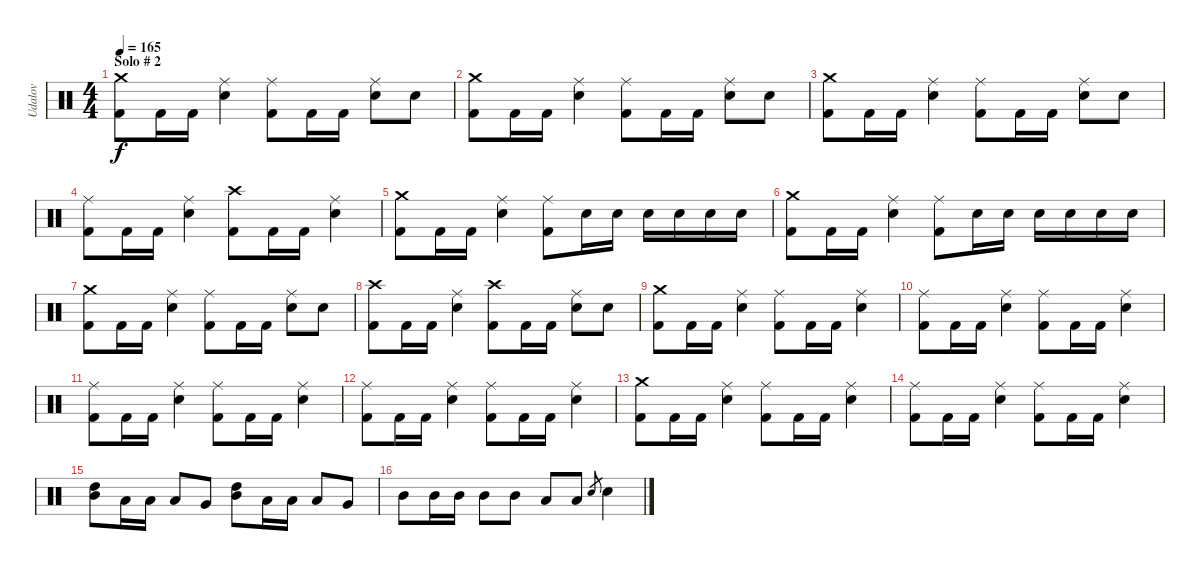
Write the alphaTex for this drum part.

\track ("Udalov" "Udalov") {instrument percussion}
\staff {score}
\articulation defaults
\ts (4 4)
\section ("" "Solo # 2")
\tempo 165
\clef neutral
\ks c
("Kick (hit) 2" "Crash medium (hit)").8{dy f} "Kick (hit) 2".16 "Kick (hit) 2".16 ("Snare (hit) 2" "Ride (middle)").4 ("Kick (hit) 2" "Ride (middle)").8 "Kick (hit) 2".16 "Kick (hit) 2".16 ("Snare (hit) 2" "Ride (middle)").8 "Snare (hit) 2".8 |
("Kick (hit) 2" "Crash medium (hit)").8 "Kick (hit) 2".16 "Kick (hit) 2".16 ("Snare (hit) 2" "Ride (middle)").4 ("Kick (hit) 2" "Ride (middle)").8 "Kick (hit) 2".16 "Kick (hit) 2".16 ("Snare (hit) 2" "Ride (middle)").8 "Snare (hit) 2".8 |
("Kick (hit) 2" "Crash medium (hit)").8 "Kick (hit) 2".16 "Kick (hit) 2".16 ("Snare (hit) 2" "Ride (middle)").4 ("Kick (hit) 2" "Ride (middle)").8 "Kick (hit) 2".16 "Kick (hit) 2".16 ("Snare (hit) 2" "Ride (middle)").8 "Snare (hit) 2".8 |
("Kick (hit) 2" "Ride (middle)").8 "Kick (hit) 2".16 "Kick (hit) 2".16 ("Snare (hit) 2" "Ride (middle)").4 ("Kick (hit) 2" "Crash high (hit)").8 "Kick (hit) 2".16 "Kick (hit) 2".16 ("Snare (hit) 2" "Ride (middle)").4 |
("Kick (hit) 2" "Crash medium (hit)").8 "Kick (hit) 2".16 "Kick (hit) 2".16 ("Snare (hit) 2" "Ride (middle)").4 ("Kick (hit) 2" "Ride (middle)").8 "Snare (hit) 2".16 "Snare (hit) 2".16 "Snare (hit) 2".16 "Snare (hit) 2".16 "Snare (hit) 2".16 "Snare (hit) 2".16 |
("Kick (hit) 2" "Crash medium (hit)").8 "Kick (hit) 2".16 "Kick (hit) 2".16 ("Snare (hit) 2" "Ride (middle)").4 ("Kick (hit) 2" "Ride (middle)").8 "Snare (hit) 2".16 "Snare (hit) 2".16 "Snare (hit) 2".16 "Snare (hit) 2".16 "Snare (hit) 2".16 "Snare (hit) 2".16 |
("Kick (hit) 2" "Crash medium (hit)").8 "Kick (hit) 2".16 "Kick (hit) 2".16 ("Snare (hit) 2" "Ride (middle)").4 ("Kick (hit) 2" "Ride (middle)").8 "Kick (hit) 2".16 "Kick (hit) 2".16 ("Snare (hit) 2" "Ride (middle)").8 "Snare (hit) 2".8 |
("Kick (hit) 2" "Crash high (hit)").8 "Kick (hit) 2".16 "Kick (hit) 2".16 ("Snare (hit) 2" "Ride (middle)").4 ("Kick (hit) 2" "Crash high (hit)").8 "Kick (hit) 2".16 "Kick (hit) 2".16 ("Snare (hit) 2" "Ride (middle)").8 "Snare (hit) 2".8 |
("Kick (hit) 2" "Crash medium (hit)").8 "Kick (hit) 2".16 "Kick (hit) 2".16 ("Snare (hit) 2" "Ride (middle)").4 ("Kick (hit) 2" "Ride (middle)").8 "Kick (hit) 2".16 "Kick (hit) 2".16 ("Snare (hit) 2" "Ride (middle)").4 |
("Kick (hit) 2" "Ride (middle)").8 "Kick (hit) 2".16 "Kick (hit) 2".16 ("Snare (hit) 2" "Ride (middle)").4 ("Kick (hit) 2" "Ride (middle)").8 "Kick (hit) 2".16 "Kick (hit) 2".16 ("Snare (hit) 2" "Ride (middle)").4 |
("Kick (hit) 2" "Ride (middle)").8 "Kick (hit) 2".16 "Kick (hit) 2".16 ("Snare (hit) 2" "Ride (middle)").4 ("Kick (hit) 2" "Ride (middle)").8 "Kick (hit) 2".16 "Kick (hit) 2".16 ("Snare (hit) 2" "Ride (middle)").4 |
("Kick (hit) 2" "Ride (middle)").8 "Kick (hit) 2".16 "Kick (hit) 2".16 ("Snare (hit) 2" "Ride (middle)").4 ("Kick (hit) 2" "Ride (middle)").8 "Kick (hit) 2".16 "Kick (hit) 2".16 ("Snare (hit) 2" "Ride (middle)").4 |
("Kick (hit) 2" "Crash medium (hit)").8 "Kick (hit) 2".16 "Kick (hit) 2".16 ("Snare (hit) 2" "Ride (middle)").4 ("Kick (hit) 2" "Ride (middle)").8 "Kick (hit) 2".16 "Kick (hit) 2".16 ("Snare (hit) 2" "Ride (middle)").4 |
("Kick (hit) 2" "Ride (middle)").8 "Kick (hit) 2".16 "Kick (hit) 2".16 ("Snare (hit) 2" "Ride (middle)").4 ("Kick (hit) 2" "Ride (middle)").8 "Kick (hit) 2".16 "Kick (hit) 2".16 ("Snare (hit) 2" "Ride (middle)").4 |
("Mid Tom (hit)" "High Tom (hit)").8 "Low Tom (hit)".16 "Low Tom (hit)".16 "Low Tom (hit)".8 "Very Low Tom (hit)".8 ("Mid Tom (hit)" "High Tom (hit)").8 "Low Tom (hit)".16 "Low Tom (hit)".16 "Low Tom (hit)".8 "Very Low Tom (hit)".8 |
"Mid Tom (hit)".8 "Mid Tom (hit)".16 "Mid Tom (hit)".16 "Mid Tom (hit)".8 "Mid Tom (hit)".8 "Low Tom (hit)".8 "Low Tom (hit)".8 "Snare (hit) 2".8{gr} "Snare (hit) 2".4
